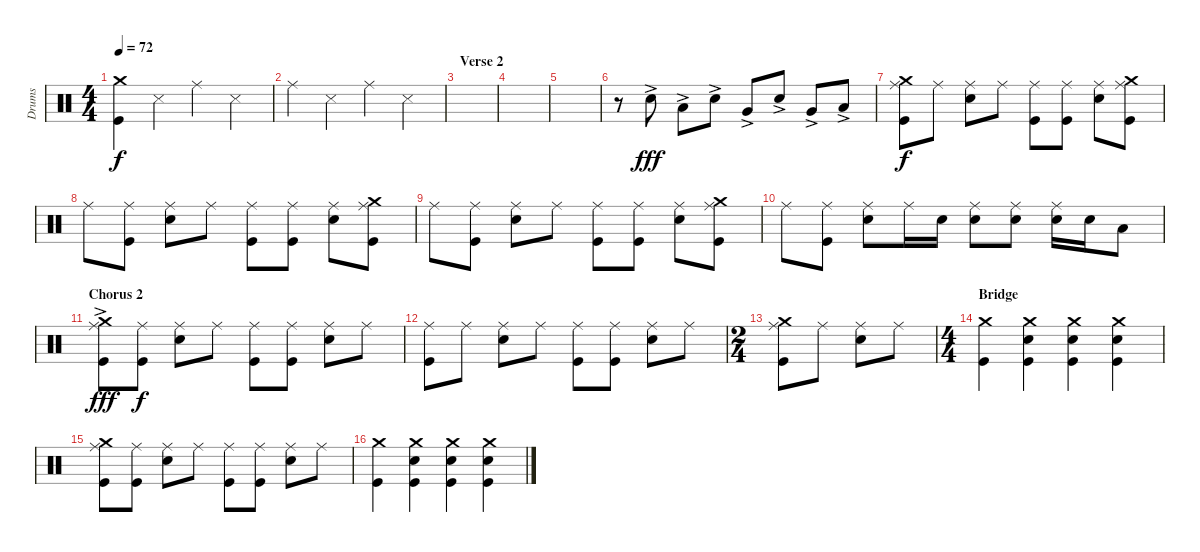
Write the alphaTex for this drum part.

\track ("Drums" "Drums") {instrument percussion}
\staff {score}
\articulation defaults
\ts (4 4)
\tempo 72
\clef neutral
\ks c
("Crash medium (hit)" "Kick (hit)").4{dy f} "Snare (side stick) 3".4 "Ride (middle)".4 "Snare (side stick) 3".4 |
"Ride (middle)".4 "Snare (side stick) 3".4 "Ride (middle)".4 "Snare (side stick) 3".4 |
\section ("" "Verse 2")
|
|
|
r.8 "Snare (hit) 2"{ac}.8{dy fff} "Low Tom (hit)"{ac}.8 "Snare (hit) 2"{ac}.8 "Very Low Tom (hit)"{ac}.8 "Snare (hit) 2"{ac}.8 "Very Low Tom (hit)"{ac}.8 "Low Floor Tom (hit)"{ac}.8 |
("Ride (middle)" "Crash medium (hit)" "Kick (hit)").8{dy f} "Ride (middle)".8 ("Ride (middle)" "Snare (hit) 2").8 "Ride (middle)".8 ("Ride (middle)" "Kick (hit)").8 ("Ride (middle)" "Kick (hit)").8 ("Ride (middle)" "Snare (hit) 2").8 ("Ride (middle)" "Crash medium (hit)" "Kick (hit)").8 |
"Ride (middle)".8 ("Ride (middle)" "Kick (hit)").8 ("Ride (middle)" "Snare (hit) 2").8 "Ride (middle)".8 ("Ride (middle)" "Kick (hit)").8 ("Ride (middle)" "Kick (hit)").8 ("Ride (middle)" "Snare (hit) 2").8 ("Ride (middle)" "Crash medium (hit)" "Kick (hit)").8 |
"Ride (middle)".8 ("Ride (middle)" "Kick (hit)").8 ("Ride (middle)" "Snare (hit) 2").8 "Ride (middle)".8 ("Ride (middle)" "Kick (hit)").8 ("Ride (middle)" "Kick (hit)").8 ("Ride (middle)" "Snare (hit) 2").8 ("Ride (middle)" "Crash medium (hit)" "Kick (hit)").8 |
"Ride (middle)".8 ("Ride (middle)" "Kick (hit)").8 ("Ride (middle)" "Snare (hit) 2").8 "Ride (middle)".16 "Snare (hit) 2".16 ("Ride (middle)" "Snare (hit) 2").8 ("Ride (middle)" "Snare (hit) 2").8 ("Ride (middle)" "Snare (hit) 2").16 "Snare (hit) 2".16 "Low Tom (hit)".8 |
\section ("" "Chorus 2")
("Ride (middle)" "Crash medium (hit)"{ac} "Kick (hit)").8{dy fff} ("Ride (middle)" "Kick (hit)").8{dy f} ("Ride (middle)" "Snare (hit) 2").8 "Ride (middle)".8 ("Ride (middle)" "Kick (hit)").8 ("Ride (middle)" "Kick (hit)").8 ("Ride (middle)" "Snare (hit) 2").8 "Ride (middle)".8 |
("Ride (middle)" "Kick (hit)").8 "Ride (middle)".8 ("Ride (middle)" "Snare (hit) 2").8 "Ride (middle)".8 ("Ride (middle)" "Kick (hit)").8 ("Ride (middle)" "Kick (hit)").8 ("Ride (middle)" "Snare (hit) 2").8 "Ride (middle)".8 |
\ts (2 4)
("Ride (middle)" "Crash medium (hit)" "Kick (hit)").8 "Ride (middle)".8 ("Ride (middle)" "Snare (hit) 2").8 "Ride (middle)".8 |
\ts (4 4)
\section ("" "Bridge")
("Crash medium (hit)" "Kick (hit)").4 ("Crash medium (hit)" "Snare (hit) 2" "Kick (hit)").4 ("Crash medium (hit)" "Snare (hit) 2" "Kick (hit)").4 ("Crash medium (hit)" "Snare (hit) 2" "Kick (hit)").4 |
("Ride (middle)" "Crash medium (hit)" "Kick (hit)").8 ("Ride (middle)" "Kick (hit)").8 ("Ride (middle)" "Snare (hit) 2").8 "Ride (middle)".8 ("Ride (middle)" "Kick (hit)").8 ("Ride (middle)" "Kick (hit)").8 ("Ride (middle)" "Snare (hit) 2").8 "Ride (middle)".8 |
("Crash medium (hit)" "Kick (hit)").4 ("Crash medium (hit)" "Snare (hit) 2" "Kick (hit)").4 ("Crash medium (hit)" "Snare (hit) 2" "Kick (hit)").4 ("Crash medium (hit)" "Snare (hit) 2" "Kick (hit)").4
